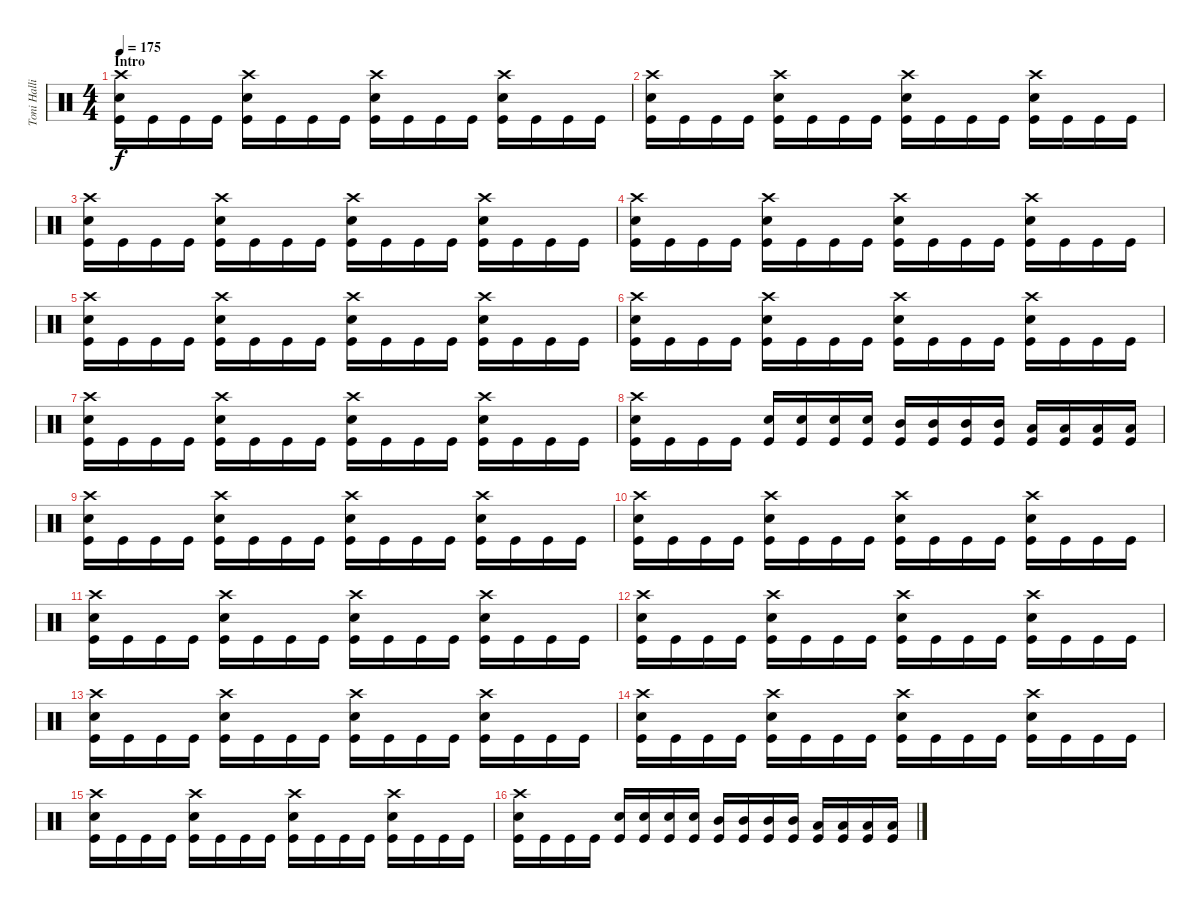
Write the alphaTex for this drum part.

\track ("Toni Hallio" "Toni Halli") {instrument percussion}
\staff {score}
\articulation defaults
\ts (4 4)
\section ("" "Intro")
\tempo 175
\clef neutral
\ks c
("Crash high (hit)" "Snare (hit) 2" "Kick (hit)").16{dy f} "Kick (hit)".16 "Kick (hit)".16 "Kick (hit)".16 ("Crash high (hit)" "Snare (hit) 2" "Kick (hit)").16 "Kick (hit)".16 "Kick (hit)".16 "Kick (hit)".16 ("Crash high (hit)" "Snare (hit) 2" "Kick (hit)").16 "Kick (hit)".16 "Kick (hit)".16 "Kick (hit)".16 ("Crash high (hit)" "Snare (hit) 2" "Kick (hit)").16 "Kick (hit)".16 "Kick (hit)".16 "Kick (hit)".16 |
("Crash high (hit)" "Snare (hit) 2" "Kick (hit)").16 "Kick (hit)".16 "Kick (hit)".16 "Kick (hit)".16 ("Crash high (hit)" "Snare (hit) 2" "Kick (hit)").16 "Kick (hit)".16 "Kick (hit)".16 "Kick (hit)".16 ("Crash high (hit)" "Snare (hit) 2" "Kick (hit)").16 "Kick (hit)".16 "Kick (hit)".16 "Kick (hit)".16 ("Crash high (hit)" "Snare (hit) 2" "Kick (hit)").16 "Kick (hit)".16 "Kick (hit)".16 "Kick (hit)".16 |
("Crash high (hit)" "Snare (hit) 2" "Kick (hit)").16 "Kick (hit)".16 "Kick (hit)".16 "Kick (hit)".16 ("Crash high (hit)" "Snare (hit) 2" "Kick (hit)").16 "Kick (hit)".16 "Kick (hit)".16 "Kick (hit)".16 ("Crash high (hit)" "Snare (hit) 2" "Kick (hit)").16 "Kick (hit)".16 "Kick (hit)".16 "Kick (hit)".16 ("Crash high (hit)" "Snare (hit) 2" "Kick (hit)").16 "Kick (hit)".16 "Kick (hit)".16 "Kick (hit)".16 |
("Crash high (hit)" "Snare (hit) 2" "Kick (hit)").16 "Kick (hit)".16 "Kick (hit)".16 "Kick (hit)".16 ("Crash high (hit)" "Snare (hit) 2" "Kick (hit)").16 "Kick (hit)".16 "Kick (hit)".16 "Kick (hit)".16 ("Crash high (hit)" "Snare (hit) 2" "Kick (hit)").16 "Kick (hit)".16 "Kick (hit)".16 "Kick (hit)".16 ("Crash high (hit)" "Snare (hit) 2" "Kick (hit)").16 "Kick (hit)".16 "Kick (hit)".16 "Kick (hit)".16 |
("Crash high (hit)" "Snare (hit) 2" "Kick (hit)").16 "Kick (hit)".16 "Kick (hit)".16 "Kick (hit)".16 ("Crash high (hit)" "Snare (hit) 2" "Kick (hit)").16 "Kick (hit)".16 "Kick (hit)".16 "Kick (hit)".16 ("Crash high (hit)" "Snare (hit) 2" "Kick (hit)").16 "Kick (hit)".16 "Kick (hit)".16 "Kick (hit)".16 ("Crash high (hit)" "Snare (hit) 2" "Kick (hit)").16 "Kick (hit)".16 "Kick (hit)".16 "Kick (hit)".16 |
("Crash high (hit)" "Snare (hit) 2" "Kick (hit)").16 "Kick (hit)".16 "Kick (hit)".16 "Kick (hit)".16 ("Crash high (hit)" "Snare (hit) 2" "Kick (hit)").16 "Kick (hit)".16 "Kick (hit)".16 "Kick (hit)".16 ("Crash high (hit)" "Snare (hit) 2" "Kick (hit)").16 "Kick (hit)".16 "Kick (hit)".16 "Kick (hit)".16 ("Crash high (hit)" "Snare (hit) 2" "Kick (hit)").16 "Kick (hit)".16 "Kick (hit)".16 "Kick (hit)".16 |
("Crash high (hit)" "Snare (hit) 2" "Kick (hit)").16 "Kick (hit)".16 "Kick (hit)".16 "Kick (hit)".16 ("Crash high (hit)" "Snare (hit) 2" "Kick (hit)").16 "Kick (hit)".16 "Kick (hit)".16 "Kick (hit)".16 ("Crash high (hit)" "Snare (hit) 2" "Kick (hit)").16 "Kick (hit)".16 "Kick (hit)".16 "Kick (hit)".16 ("Crash high (hit)" "Snare (hit) 2" "Kick (hit)").16 "Kick (hit)".16 "Kick (hit)".16 "Kick (hit)".16 |
("Crash high (hit)" "Snare (hit) 2" "Kick (hit)").16 "Kick (hit)".16 "Kick (hit)".16 "Kick (hit)".16 ("Snare (hit) 2" "Kick (hit)").16 ("Snare (hit) 2" "Kick (hit)").16 ("Snare (hit) 2" "Kick (hit)").16 ("Snare (hit) 2" "Kick (hit)").16 ("Mid Tom (hit)" "Kick (hit)").16 ("Mid Tom (hit)" "Kick (hit)").16 ("Mid Tom (hit)" "Kick (hit)").16 ("Mid Tom (hit)" "Kick (hit)").16 ("Low Tom (hit)" "Kick (hit)").16 ("Low Tom (hit)" "Kick (hit)").16 ("Low Tom (hit)" "Kick (hit)").16 ("Low Tom (hit)" "Kick (hit)").16 |
("Crash high (hit)" "Snare (hit) 2" "Kick (hit)").16 "Kick (hit)".16 "Kick (hit)".16 "Kick (hit)".16 ("Crash high (hit)" "Snare (hit) 2" "Kick (hit)").16 "Kick (hit)".16 "Kick (hit)".16 "Kick (hit)".16 ("Crash high (hit)" "Snare (hit) 2" "Kick (hit)").16 "Kick (hit)".16 "Kick (hit)".16 "Kick (hit)".16 ("Crash high (hit)" "Snare (hit) 2" "Kick (hit)").16 "Kick (hit)".16 "Kick (hit)".16 "Kick (hit)".16 |
("Crash high (hit)" "Snare (hit) 2" "Kick (hit)").16 "Kick (hit)".16 "Kick (hit)".16 "Kick (hit)".16 ("Crash high (hit)" "Snare (hit) 2" "Kick (hit)").16 "Kick (hit)".16 "Kick (hit)".16 "Kick (hit)".16 ("Crash high (hit)" "Snare (hit) 2" "Kick (hit)").16 "Kick (hit)".16 "Kick (hit)".16 "Kick (hit)".16 ("Crash high (hit)" "Snare (hit) 2" "Kick (hit)").16 "Kick (hit)".16 "Kick (hit)".16 "Kick (hit)".16 |
("Crash high (hit)" "Snare (hit) 2" "Kick (hit)").16 "Kick (hit)".16 "Kick (hit)".16 "Kick (hit)".16 ("Crash high (hit)" "Snare (hit) 2" "Kick (hit)").16 "Kick (hit)".16 "Kick (hit)".16 "Kick (hit)".16 ("Crash high (hit)" "Snare (hit) 2" "Kick (hit)").16 "Kick (hit)".16 "Kick (hit)".16 "Kick (hit)".16 ("Crash high (hit)" "Snare (hit) 2" "Kick (hit)").16 "Kick (hit)".16 "Kick (hit)".16 "Kick (hit)".16 |
("Crash high (hit)" "Snare (hit) 2" "Kick (hit)").16 "Kick (hit)".16 "Kick (hit)".16 "Kick (hit)".16 ("Crash high (hit)" "Snare (hit) 2" "Kick (hit)").16 "Kick (hit)".16 "Kick (hit)".16 "Kick (hit)".16 ("Crash high (hit)" "Snare (hit) 2" "Kick (hit)").16 "Kick (hit)".16 "Kick (hit)".16 "Kick (hit)".16 ("Crash high (hit)" "Snare (hit) 2" "Kick (hit)").16 "Kick (hit)".16 "Kick (hit)".16 "Kick (hit)".16 |
("Crash high (hit)" "Snare (hit) 2" "Kick (hit)").16 "Kick (hit)".16 "Kick (hit)".16 "Kick (hit)".16 ("Crash high (hit)" "Snare (hit) 2" "Kick (hit)").16 "Kick (hit)".16 "Kick (hit)".16 "Kick (hit)".16 ("Crash high (hit)" "Snare (hit) 2" "Kick (hit)").16 "Kick (hit)".16 "Kick (hit)".16 "Kick (hit)".16 ("Crash high (hit)" "Snare (hit) 2" "Kick (hit)").16 "Kick (hit)".16 "Kick (hit)".16 "Kick (hit)".16 |
("Crash high (hit)" "Snare (hit) 2" "Kick (hit)").16 "Kick (hit)".16 "Kick (hit)".16 "Kick (hit)".16 ("Crash high (hit)" "Snare (hit) 2" "Kick (hit)").16 "Kick (hit)".16 "Kick (hit)".16 "Kick (hit)".16 ("Crash high (hit)" "Snare (hit) 2" "Kick (hit)").16 "Kick (hit)".16 "Kick (hit)".16 "Kick (hit)".16 ("Crash high (hit)" "Snare (hit) 2" "Kick (hit)").16 "Kick (hit)".16 "Kick (hit)".16 "Kick (hit)".16 |
("Crash high (hit)" "Snare (hit) 2" "Kick (hit)").16 "Kick (hit)".16 "Kick (hit)".16 "Kick (hit)".16 ("Crash high (hit)" "Snare (hit) 2" "Kick (hit)").16 "Kick (hit)".16 "Kick (hit)".16 "Kick (hit)".16 ("Crash high (hit)" "Snare (hit) 2" "Kick (hit)").16 "Kick (hit)".16 "Kick (hit)".16 "Kick (hit)".16 ("Crash high (hit)" "Snare (hit) 2" "Kick (hit)").16 "Kick (hit)".16 "Kick (hit)".16 "Kick (hit)".16 |
("Crash high (hit)" "Snare (hit) 2" "Kick (hit)").16 "Kick (hit)".16 "Kick (hit)".16 "Kick (hit)".16 ("Snare (hit) 2" "Kick (hit)").16 ("Snare (hit) 2" "Kick (hit)").16 ("Snare (hit) 2" "Kick (hit)").16 ("Snare (hit) 2" "Kick (hit)").16 ("Mid Tom (hit)" "Kick (hit)").16 ("Mid Tom (hit)" "Kick (hit)").16 ("Mid Tom (hit)" "Kick (hit)").16 ("Mid Tom (hit)" "Kick (hit)").16 ("Low Tom (hit)" "Kick (hit)").16 ("Low Tom (hit)" "Kick (hit)").16 ("Low Tom (hit)" "Kick (hit)").16 ("Low Tom (hit)" "Kick (hit)").16
